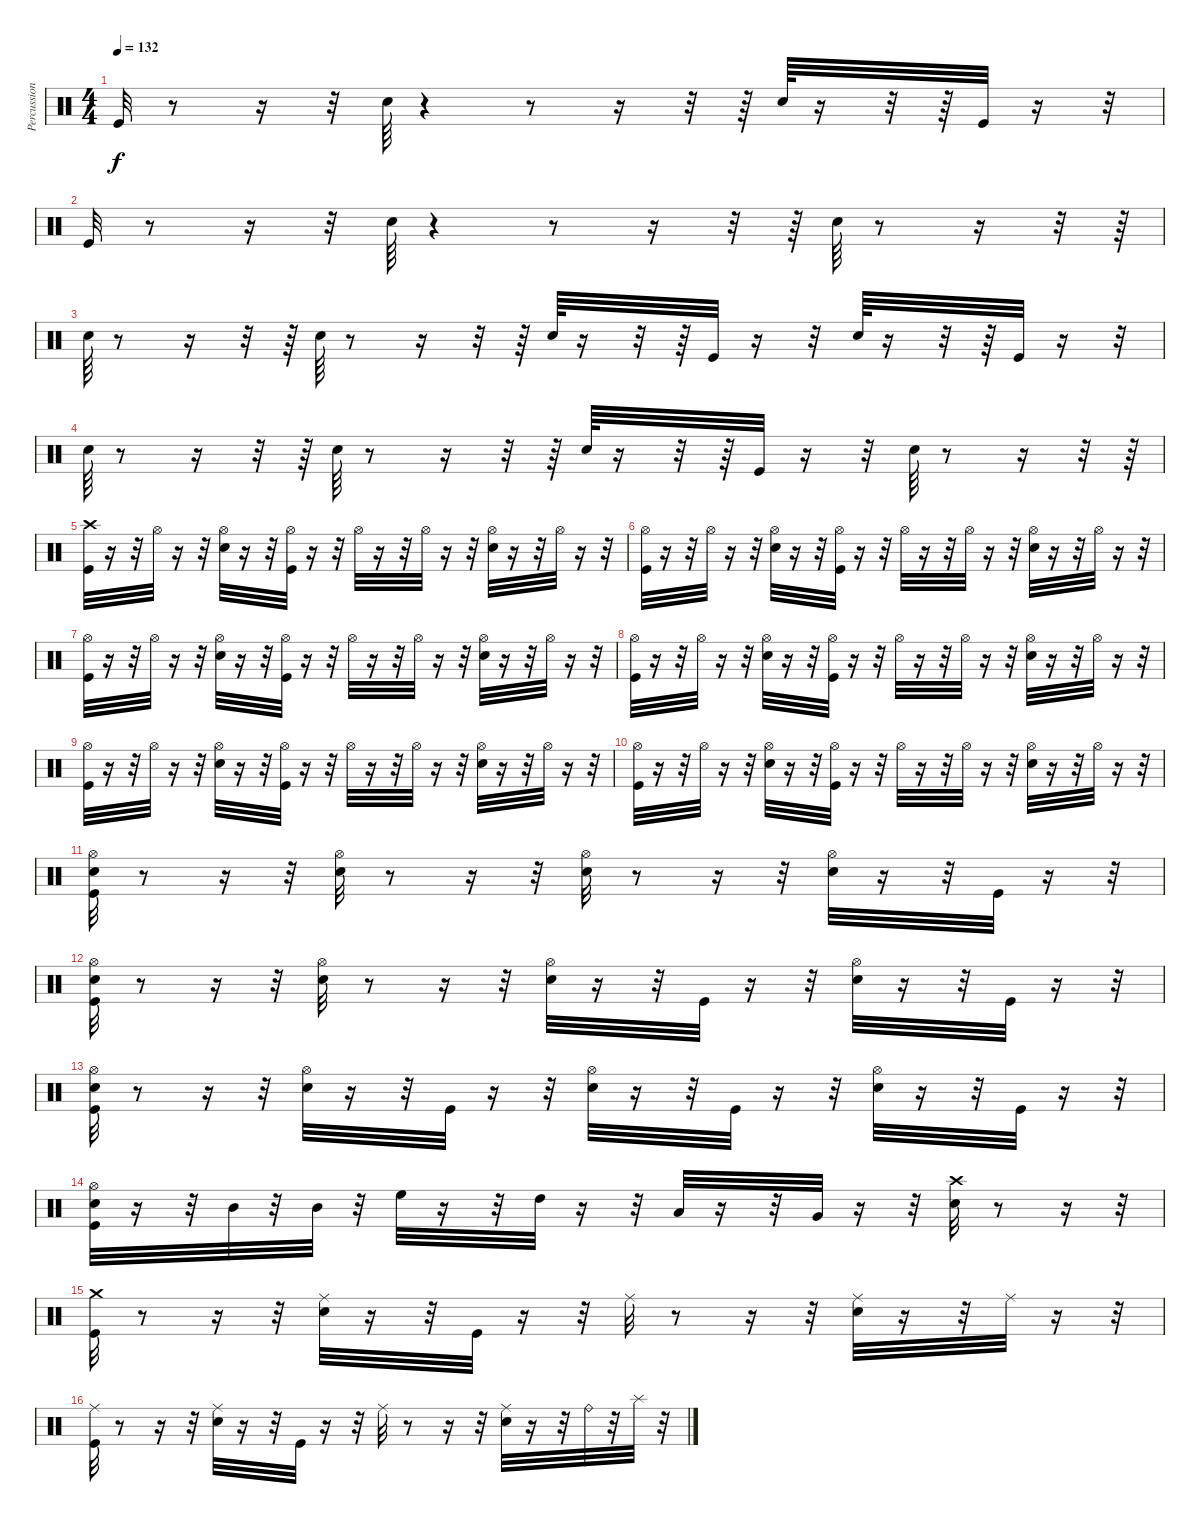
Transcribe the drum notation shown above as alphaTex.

\track ("Percussions" "Percussion") {instrument percussion}
\staff {score}
\articulation defaults
\ts (4 4)
\tempo 132
\clef neutral
\ks c "Kick (hit)".32{dy f}
r.8 r.16 r.32 "Electric Snare (hit)".64 r.4 r.8 r.16 r.32 r.64 "Electric Snare (hit)".64 r.16 r.32 r.64 "Kick (hit)".32 r.16 r.32 |
"Kick (hit)".32 r.8 r.16 r.32 "Electric Snare (hit)".64 r.4 r.8 r.16 r.32 r.64 "Electric Snare (hit)".64 r.8 r.16 r.32 r.64 |
"Electric Snare (hit)".64 r.8 r.16 r.32 r.64 "Electric Snare (hit)".64 r.8 r.16 r.32 r.64 "Electric Snare (hit)".64 r.16 r.32 r.64 "Kick (hit)".32 r.16 r.32 "Electric Snare (hit)".64 r.16 r.32 r.64 "Kick (hit)".32 r.16 r.32 |
"Electric Snare (hit)".64 r.8 r.16 r.32 r.64 "Electric Snare (hit)".64 r.8 r.16 r.32 r.64 "Electric Snare (hit)".64 r.16 r.32 r.64 "Kick (hit)".32 r.16 r.32 "Electric Snare (hit)".64 r.8 r.16 r.32 r.64 |
("Crash high (hit)" "Kick (hit)").32 r.16 r.32 "Hi-Hat (open)".32 r.16 r.32 ("Hi-Hat (open)" "Electric Snare (hit)").32 r.16 r.32 ("Hi-Hat (open)" "Kick (hit)").32 r.16 r.32 "Hi-Hat (open)".32 r.16 r.32 "Hi-Hat (open)".32 r.16 r.32 ("Hi-Hat (open)" "Electric Snare (hit)").32 r.16 r.32 "Hi-Hat (open)".32 r.16 r.32 |
("Hi-Hat (open)" "Kick (hit)").32 r.16 r.32 "Hi-Hat (open)".32 r.16 r.32 ("Hi-Hat (open)" "Electric Snare (hit)").32 r.16 r.32 ("Hi-Hat (open)" "Kick (hit)").32 r.16 r.32 "Hi-Hat (open)".32 r.16 r.32 "Hi-Hat (open)".32 r.16 r.32 ("Hi-Hat (open)" "Electric Snare (hit)").32 r.16 r.32 "Hi-Hat (open)".32 r.16 r.32 |
("Hi-Hat (open)" "Kick (hit)").32 r.16 r.32 "Hi-Hat (open)".32 r.16 r.32 ("Hi-Hat (open)" "Electric Snare (hit)").32 r.16 r.32 ("Hi-Hat (open)" "Kick (hit)").32 r.16 r.32 "Hi-Hat (open)".32 r.16 r.32 "Hi-Hat (open)".32 r.16 r.32 ("Hi-Hat (open)" "Electric Snare (hit)").32 r.16 r.32 "Hi-Hat (open)".32 r.16 r.32 |
("Hi-Hat (open)" "Kick (hit)").32 r.16 r.32 "Hi-Hat (open)".32 r.16 r.32 ("Hi-Hat (open)" "Electric Snare (hit)").32 r.16 r.32 ("Hi-Hat (open)" "Kick (hit)").32 r.16 r.32 "Hi-Hat (open)".32 r.16 r.32 "Hi-Hat (open)".32 r.16 r.32 ("Hi-Hat (open)" "Electric Snare (hit)").32 r.16 r.32 "Hi-Hat (open)".32 r.16 r.32 |
("Hi-Hat (open)" "Kick (hit)").32 r.16 r.32 "Hi-Hat (open)".32 r.16 r.32 ("Hi-Hat (open)" "Electric Snare (hit)").32 r.16 r.32 ("Hi-Hat (open)" "Kick (hit)").32 r.16 r.32 "Hi-Hat (open)".32 r.16 r.32 "Hi-Hat (open)".32 r.16 r.32 ("Hi-Hat (open)" "Electric Snare (hit)").32 r.16 r.32 "Hi-Hat (open)".32 r.16 r.32 |
("Hi-Hat (open)" "Kick (hit)").32 r.16 r.32 "Hi-Hat (open)".32 r.16 r.32 ("Hi-Hat (open)" "Electric Snare (hit)").32 r.16 r.32 ("Hi-Hat (open)" "Kick (hit)").32 r.16 r.32 "Hi-Hat (open)".32 r.16 r.32 "Hi-Hat (open)".32 r.16 r.32 ("Hi-Hat (open)" "Electric Snare (hit)").32 r.16 r.32 "Hi-Hat (open)".32 r.16 r.32 |
("Hi-Hat (open)" "Kick (hit)" "Electric Snare (hit)").32 r.8 r.16 r.32 ("Hi-Hat (open)" "Electric Snare (hit)").32 r.8 r.16 r.32 ("Hi-Hat (open)" "Electric Snare (hit)").32 r.8 r.16 r.32 ("Hi-Hat (open)" "Electric Snare (hit)").32 r.16 r.32 "Kick (hit)".32 r.16 r.32 |
("Hi-Hat (open)" "Kick (hit)" "Electric Snare (hit)").32 r.8 r.16 r.32 ("Hi-Hat (open)" "Electric Snare (hit)").32 r.8 r.16 r.32 ("Hi-Hat (open)" "Electric Snare (hit)").32 r.16 r.32 "Kick (hit)".32 r.16 r.32 ("Hi-Hat (open)" "Electric Snare (hit)").32 r.16 r.32 "Kick (hit)".32 r.16 r.32 |
("Kick (hit)" "Electric Snare (hit)" "Hi-Hat (open)").32 r.8 r.16 r.32 ("Electric Snare (hit)" "Hi-Hat (open)").32 r.16 r.32 "Kick (hit)".32 r.16 r.32 ("Electric Snare (hit)" "Hi-Hat (open)").32 r.16 r.32 "Kick (hit)".32 r.16 r.32 ("Hi-Hat (open)" "Electric Snare (hit)").32 r.16 r.32 "Kick (hit)".32 r.16 r.32 |
("Kick (hit)" "Electric Snare (hit)" "Hi-Hat (open)").32 r.16 r.32 "Mid Tom (hit)".32 r.32 "Mid Tom (hit)".32 r.32 "High Floor Tom (hit)".32 r.16 r.32 "High Tom (hit)".32 r.16 r.32 "Low Tom (hit)".32 r.16 r.32 "Very Low Tom (hit)".32 r.16 r.32 ("Crash high (hit)" "Electric Snare (hit)").32 r.8 r.16 r.32 |
("Crash medium (hit)" "Kick (hit)").32 r.8 r.16 r.32 ("Ride (middle)" "Electric Snare (hit)").32 r.16 r.32 "Kick (hit)".32 r.16 r.32 "Ride (middle)".32 r.8 r.16 r.32 ("Ride (middle)" "Electric Snare (hit)").32 r.16 r.32 "Ride (middle)".32 r.16 r.32 |
("Kick (hit)" "Ride (middle)").32 r.8 r.16 r.32 ("Electric Snare (hit)" "Ride (middle)").32 r.16 r.32 "Kick (hit)".32 r.16 r.32 "Ride (middle)".32 r.8 r.16 r.32 ("Electric Snare (hit)" "Ride (middle)").32 r.16 r.32 "Ride (bell)".32 r.32 "Splash (hit)".32 r.32
